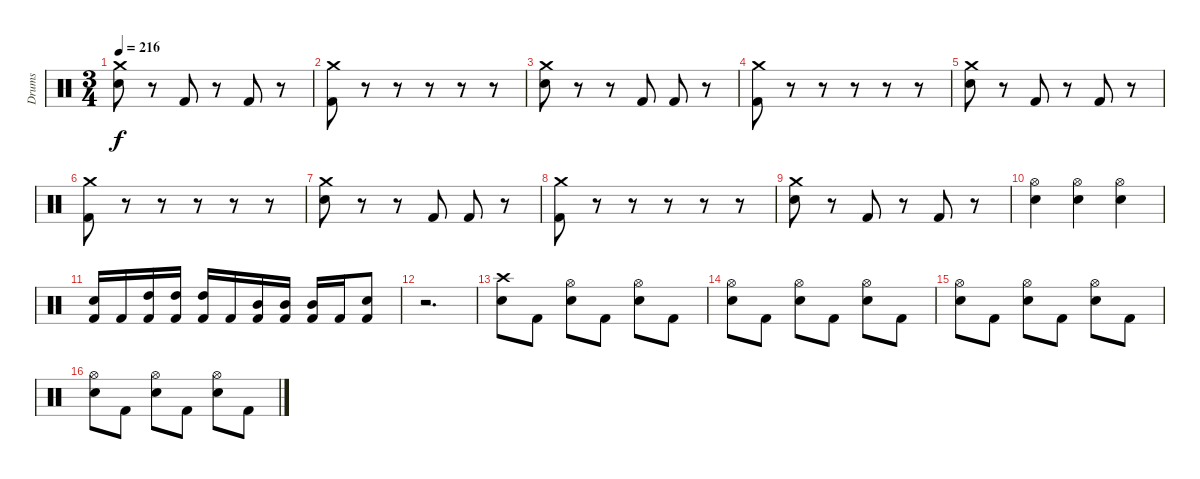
\track ("Drums" "Drums") {instrument percussion}
\staff {score}
\articulation defaults
\ts (3 4)
\tempo 216
\clef neutral
\ks c
("Crash medium (hit)" "Electric Snare (hit)").8{dy f} r.8 "Kick (hit) 2".8 r.8 "Kick (hit) 2".8 r.8 |
("Crash medium (hit)" "Kick (hit) 2").8 r.8 r.8 r.8 r.8 r.8 |
("Crash medium (hit)" "Electric Snare (hit)").8 r.8 r.8 "Kick (hit) 2".8 "Kick (hit) 2".8 r.8 |
("Crash medium (hit)" "Kick (hit) 2").8 r.8 r.8 r.8 r.8 r.8 |
("Crash medium (hit)" "Electric Snare (hit)").8 r.8 "Kick (hit) 2".8 r.8 "Kick (hit) 2".8 r.8 |
("Crash medium (hit)" "Kick (hit) 2").8 r.8 r.8 r.8 r.8 r.8 |
("Crash medium (hit)" "Electric Snare (hit)").8 r.8 r.8 "Kick (hit) 2".8 "Kick (hit) 2".8 r.8 |
("Crash medium (hit)" "Kick (hit) 2").8 r.8 r.8 r.8 r.8 r.8 |
("Crash medium (hit)" "Electric Snare (hit)").8 r.8 "Kick (hit) 2".8 r.8 "Kick (hit) 2".8 r.8 |
("Hi-Hat (open)" "Electric Snare (hit)").4 ("Hi-Hat (open)" "Electric Snare (hit)").4 ("Hi-Hat (open)" "Electric Snare (hit)").4 |
("Electric Snare (hit)" "Kick (hit) 2").16 "Kick (hit) 2".16 ("High Tom (hit)" "Kick (hit) 2").16 ("High Tom (hit)" "Kick (hit) 2").16 ("High Tom (hit)" "Kick (hit) 2").16 "Kick (hit) 2".16 ("Mid Tom (hit)" "Kick (hit) 2").16 ("Mid Tom (hit)" "Kick (hit) 2").16 ("Mid Tom (hit)" "Kick (hit) 2").16 "Kick (hit) 2".16 ("Electric Snare (hit)" "Kick (hit) 2").8 |
r.2{d} |
("Crash high (hit)" "Electric Snare (hit)").8 "Kick (hit) 2".8 ("Hi-Hat (open)" "Electric Snare (hit)").8 "Kick (hit) 2".8 ("Hi-Hat (open)" "Electric Snare (hit)").8 "Kick (hit) 2".8 |
("Hi-Hat (open)" "Electric Snare (hit)").8 "Kick (hit) 2".8 ("Hi-Hat (open)" "Electric Snare (hit)").8 "Kick (hit) 2".8 ("Hi-Hat (open)" "Electric Snare (hit)").8 "Kick (hit) 2".8 |
("Hi-Hat (open)" "Electric Snare (hit)").8 "Kick (hit) 2".8 ("Hi-Hat (open)" "Electric Snare (hit)").8 "Kick (hit) 2".8 ("Hi-Hat (open)" "Electric Snare (hit)").8 "Kick (hit) 2".8 |
("Hi-Hat (open)" "Electric Snare (hit)").8 "Kick (hit) 2".8 ("Hi-Hat (open)" "Electric Snare (hit)").8 "Kick (hit) 2".8 ("Hi-Hat (open)" "Electric Snare (hit)").8 "Kick (hit) 2".8
